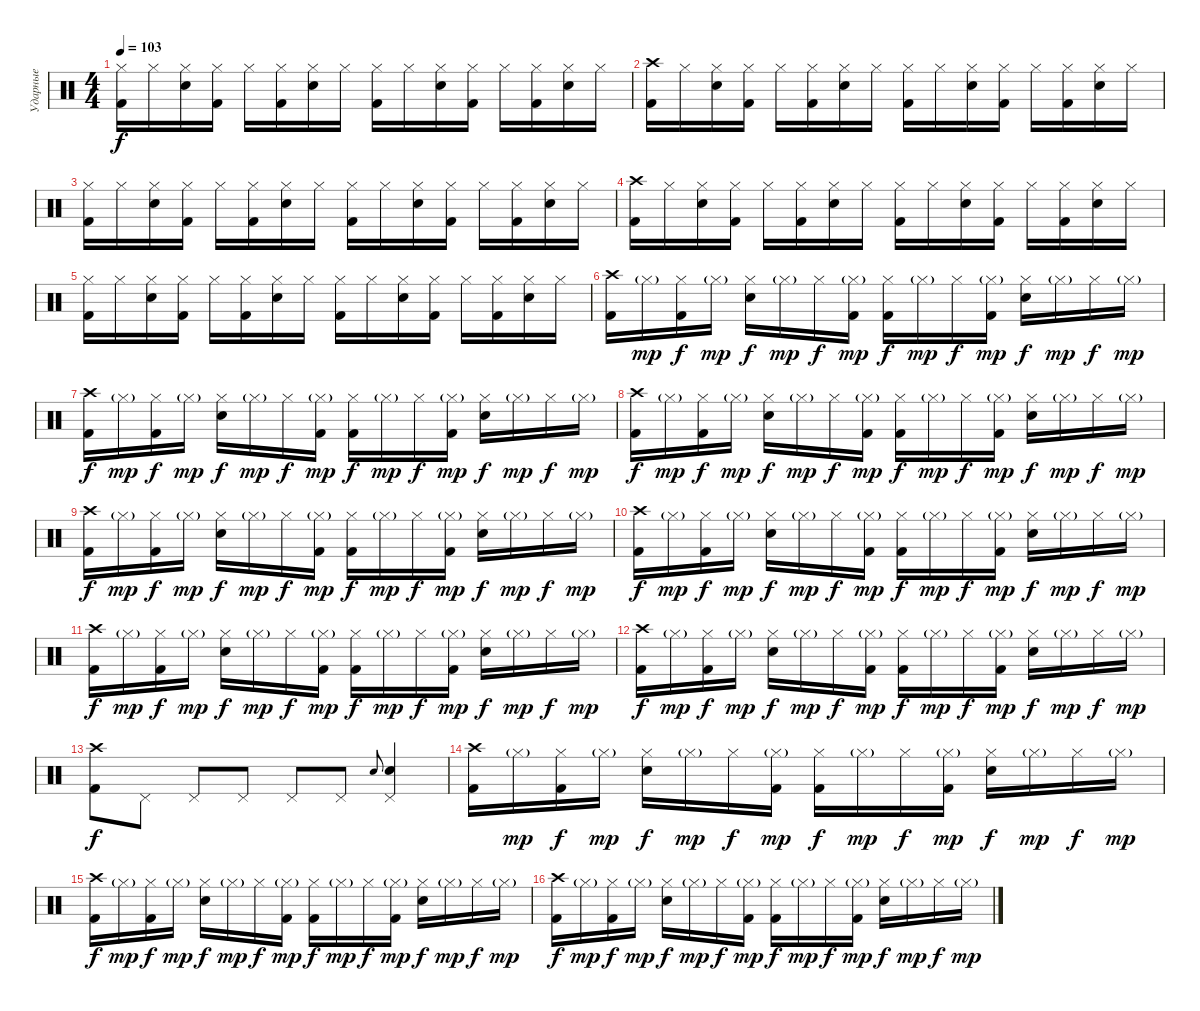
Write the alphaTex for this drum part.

\track ("Ударные" "Ударные") {instrument percussion}
\staff {score}
\articulation defaults
\ts (4 4)
\tempo 103
\clef neutral
\ks c
("Kick (hit) 2" "Hi-Hat (closed)").16{dy f} "Hi-Hat (closed)".16 ("Electric Snare (hit)" "Hi-Hat (closed)").16 ("Kick (hit) 2" "Hi-Hat (closed)").16 "Hi-Hat (closed)".16 ("Kick (hit) 2" "Hi-Hat (closed)").16 ("Electric Snare (hit)" "Hi-Hat (closed)").16 "Hi-Hat (closed)".16 ("Kick (hit) 2" "Hi-Hat (closed)").16 "Hi-Hat (closed)".16 ("Electric Snare (hit)" "Hi-Hat (closed)").16 ("Kick (hit) 2" "Hi-Hat (closed)").16 "Hi-Hat (closed)".16 ("Kick (hit) 2" "Hi-Hat (closed)").16 ("Electric Snare (hit)" "Hi-Hat (closed)").16 "Hi-Hat (closed)".16 |
("Kick (hit) 2" "Crash high (hit)").16 "Hi-Hat (closed)".16 ("Electric Snare (hit)" "Hi-Hat (closed)").16 ("Kick (hit) 2" "Hi-Hat (closed)").16 "Hi-Hat (closed)".16 ("Kick (hit) 2" "Hi-Hat (closed)").16 ("Electric Snare (hit)" "Hi-Hat (closed)").16 "Hi-Hat (closed)".16 ("Kick (hit) 2" "Hi-Hat (closed)").16 "Hi-Hat (closed)".16 ("Electric Snare (hit)" "Hi-Hat (closed)").16 ("Kick (hit) 2" "Hi-Hat (closed)").16 "Hi-Hat (closed)".16 ("Kick (hit) 2" "Hi-Hat (closed)").16 ("Electric Snare (hit)" "Hi-Hat (closed)").16 "Hi-Hat (closed)".16 |
("Kick (hit) 2" "Hi-Hat (closed)").16 "Hi-Hat (closed)".16 ("Electric Snare (hit)" "Hi-Hat (closed)").16 ("Kick (hit) 2" "Hi-Hat (closed)").16 "Hi-Hat (closed)".16 ("Kick (hit) 2" "Hi-Hat (closed)").16 ("Electric Snare (hit)" "Hi-Hat (closed)").16 "Hi-Hat (closed)".16 ("Kick (hit) 2" "Hi-Hat (closed)").16 "Hi-Hat (closed)".16 ("Electric Snare (hit)" "Hi-Hat (closed)").16 ("Kick (hit) 2" "Hi-Hat (closed)").16 "Hi-Hat (closed)".16 ("Kick (hit) 2" "Hi-Hat (closed)").16 ("Electric Snare (hit)" "Hi-Hat (closed)").16 "Hi-Hat (closed)".16 |
("Kick (hit) 2" "Crash high (hit)").16 "Hi-Hat (closed)".16 ("Electric Snare (hit)" "Hi-Hat (closed)").16 ("Kick (hit) 2" "Hi-Hat (closed)").16 "Hi-Hat (closed)".16 ("Kick (hit) 2" "Hi-Hat (closed)").16 ("Electric Snare (hit)" "Hi-Hat (closed)").16 "Hi-Hat (closed)".16 ("Kick (hit) 2" "Hi-Hat (closed)").16 "Hi-Hat (closed)".16 ("Electric Snare (hit)" "Hi-Hat (closed)").16 ("Kick (hit) 2" "Hi-Hat (closed)").16 "Hi-Hat (closed)".16 ("Kick (hit) 2" "Hi-Hat (closed)").16 ("Electric Snare (hit)" "Hi-Hat (closed)").16 "Hi-Hat (closed)".16 |
("Kick (hit) 2" "Hi-Hat (closed)").16 "Hi-Hat (closed)".16 ("Electric Snare (hit)" "Hi-Hat (closed)").16 ("Kick (hit) 2" "Hi-Hat (closed)").16 "Hi-Hat (closed)".16 ("Kick (hit) 2" "Hi-Hat (closed)").16 ("Electric Snare (hit)" "Hi-Hat (closed)").16 "Hi-Hat (closed)".16 ("Kick (hit) 2" "Hi-Hat (closed)").16 "Hi-Hat (closed)".16 ("Electric Snare (hit)" "Hi-Hat (closed)").16 ("Kick (hit) 2" "Hi-Hat (closed)").16 "Hi-Hat (closed)".16 ("Kick (hit) 2" "Hi-Hat (closed)").16 ("Electric Snare (hit)" "Hi-Hat (closed)").16 "Hi-Hat (closed)".16 |
("Kick (hit) 2" "Crash high (hit)").16 "Hi-Hat (closed)"{g}.16{dy mp} ("Kick (hit) 2" "Hi-Hat (closed)").16{dy f} "Hi-Hat (closed)"{g}.16{dy mp} ("Electric Snare (hit)" "Hi-Hat (closed)").16{dy f} "Hi-Hat (closed)"{g}.16{dy mp} "Hi-Hat (closed)".16{dy f} ("Kick (hit) 2" "Hi-Hat (closed)"{g}).16{dy mp} ("Kick (hit) 2" "Hi-Hat (closed)").16{dy f} "Hi-Hat (closed)"{g}.16{dy mp} "Hi-Hat (closed)".16{dy f} ("Kick (hit) 2" "Hi-Hat (closed)"{g}).16{dy mp} ("Electric Snare (hit)" "Hi-Hat (closed)").16{dy f} "Hi-Hat (closed)"{g}.16{dy mp} "Hi-Hat (closed)".16{dy f} "Hi-Hat (closed)"{g}.16{dy mp} |
("Kick (hit) 2" "Crash high (hit)").16{dy f} "Hi-Hat (closed)"{g}.16{dy mp} ("Kick (hit) 2" "Hi-Hat (closed)").16{dy f} "Hi-Hat (closed)"{g}.16{dy mp} ("Electric Snare (hit)" "Hi-Hat (closed)").16{dy f} "Hi-Hat (closed)"{g}.16{dy mp} "Hi-Hat (closed)".16{dy f} ("Kick (hit) 2" "Hi-Hat (closed)"{g}).16{dy mp} ("Kick (hit) 2" "Hi-Hat (closed)").16{dy f} "Hi-Hat (closed)"{g}.16{dy mp} "Hi-Hat (closed)".16{dy f} ("Kick (hit) 2" "Hi-Hat (closed)"{g}).16{dy mp} ("Electric Snare (hit)" "Hi-Hat (closed)").16{dy f} "Hi-Hat (closed)"{g}.16{dy mp} "Hi-Hat (closed)".16{dy f} "Hi-Hat (closed)"{g}.16{dy mp} |
("Kick (hit) 2" "Crash high (hit)").16{dy f} "Hi-Hat (closed)"{g}.16{dy mp} ("Kick (hit) 2" "Hi-Hat (closed)").16{dy f} "Hi-Hat (closed)"{g}.16{dy mp} ("Electric Snare (hit)" "Hi-Hat (closed)").16{dy f} "Hi-Hat (closed)"{g}.16{dy mp} "Hi-Hat (closed)".16{dy f} ("Kick (hit) 2" "Hi-Hat (closed)"{g}).16{dy mp} ("Kick (hit) 2" "Hi-Hat (closed)").16{dy f} "Hi-Hat (closed)"{g}.16{dy mp} "Hi-Hat (closed)".16{dy f} ("Kick (hit) 2" "Hi-Hat (closed)"{g}).16{dy mp} ("Electric Snare (hit)" "Hi-Hat (closed)").16{dy f} "Hi-Hat (closed)"{g}.16{dy mp} "Hi-Hat (closed)".16{dy f} "Hi-Hat (closed)"{g}.16{dy mp} |
("Kick (hit) 2" "Crash high (hit)").16{dy f} "Hi-Hat (closed)"{g}.16{dy mp} ("Kick (hit) 2" "Hi-Hat (closed)").16{dy f} "Hi-Hat (closed)"{g}.16{dy mp} ("Electric Snare (hit)" "Hi-Hat (closed)").16{dy f} "Hi-Hat (closed)"{g}.16{dy mp} "Hi-Hat (closed)".16{dy f} ("Kick (hit) 2" "Hi-Hat (closed)"{g}).16{dy mp} ("Kick (hit) 2" "Hi-Hat (closed)").16{dy f} "Hi-Hat (closed)"{g}.16{dy mp} "Hi-Hat (closed)".16{dy f} ("Kick (hit) 2" "Hi-Hat (closed)"{g}).16{dy mp} ("Electric Snare (hit)" "Hi-Hat (closed)").16{dy f} "Hi-Hat (closed)"{g}.16{dy mp} "Hi-Hat (closed)".16{dy f} "Hi-Hat (closed)"{g}.16{dy mp} |
("Kick (hit) 2" "Crash high (hit)").16{dy f} "Hi-Hat (closed)"{g}.16{dy mp} ("Kick (hit) 2" "Hi-Hat (closed)").16{dy f} "Hi-Hat (closed)"{g}.16{dy mp} ("Electric Snare (hit)" "Hi-Hat (closed)").16{dy f} "Hi-Hat (closed)"{g}.16{dy mp} "Hi-Hat (closed)".16{dy f} ("Kick (hit) 2" "Hi-Hat (closed)"{g}).16{dy mp} ("Kick (hit) 2" "Hi-Hat (closed)").16{dy f} "Hi-Hat (closed)"{g}.16{dy mp} "Hi-Hat (closed)".16{dy f} ("Kick (hit) 2" "Hi-Hat (closed)"{g}).16{dy mp} ("Electric Snare (hit)" "Hi-Hat (closed)").16{dy f} "Hi-Hat (closed)"{g}.16{dy mp} "Hi-Hat (closed)".16{dy f} "Hi-Hat (closed)"{g}.16{dy mp} |
("Kick (hit) 2" "Crash high (hit)").16{dy f} "Hi-Hat (closed)"{g}.16{dy mp} ("Kick (hit) 2" "Hi-Hat (closed)").16{dy f} "Hi-Hat (closed)"{g}.16{dy mp} ("Electric Snare (hit)" "Hi-Hat (closed)").16{dy f} "Hi-Hat (closed)"{g}.16{dy mp} "Hi-Hat (closed)".16{dy f} ("Kick (hit) 2" "Hi-Hat (closed)"{g}).16{dy mp} ("Kick (hit) 2" "Hi-Hat (closed)").16{dy f} "Hi-Hat (closed)"{g}.16{dy mp} "Hi-Hat (closed)".16{dy f} ("Kick (hit) 2" "Hi-Hat (closed)"{g}).16{dy mp} ("Electric Snare (hit)" "Hi-Hat (closed)").16{dy f} "Hi-Hat (closed)"{g}.16{dy mp} "Hi-Hat (closed)".16{dy f} "Hi-Hat (closed)"{g}.16{dy mp} |
("Kick (hit) 2" "Crash high (hit)").16{dy f} "Hi-Hat (closed)"{g}.16{dy mp} ("Kick (hit) 2" "Hi-Hat (closed)").16{dy f} "Hi-Hat (closed)"{g}.16{dy mp} ("Electric Snare (hit)" "Hi-Hat (closed)").16{dy f} "Hi-Hat (closed)"{g}.16{dy mp} "Hi-Hat (closed)".16{dy f} ("Kick (hit) 2" "Hi-Hat (closed)"{g}).16{dy mp} ("Kick (hit) 2" "Hi-Hat (closed)").16{dy f} "Hi-Hat (closed)"{g}.16{dy mp} "Hi-Hat (closed)".16{dy f} ("Kick (hit) 2" "Hi-Hat (closed)"{g}).16{dy mp} ("Electric Snare (hit)" "Hi-Hat (closed)").16{dy f} "Hi-Hat (closed)"{g}.16{dy mp} "Hi-Hat (closed)".16{dy f} "Hi-Hat (closed)"{g}.16{dy mp} |
("Kick (hit) 2" "Crash high (hit)").8{dy f} "Pedal Hi-Hat (hit)".8 "Pedal Hi-Hat (hit)".8 "Pedal Hi-Hat (hit)".8 "Pedal Hi-Hat (hit)".8 "Pedal Hi-Hat (hit)".8 "Electric Snare (hit)".8{gr onbeat} ("Pedal Hi-Hat (hit)" "Electric Snare (hit)").4 |
("Kick (hit) 2" "Crash high (hit)").16 "Hi-Hat (closed)"{g}.16{dy mp} ("Kick (hit) 2" "Hi-Hat (closed)").16{dy f} "Hi-Hat (closed)"{g}.16{dy mp} ("Electric Snare (hit)" "Hi-Hat (closed)").16{dy f} "Hi-Hat (closed)"{g}.16{dy mp} "Hi-Hat (closed)".16{dy f} ("Kick (hit) 2" "Hi-Hat (closed)"{g}).16{dy mp} ("Kick (hit) 2" "Hi-Hat (closed)").16{dy f} "Hi-Hat (closed)"{g}.16{dy mp} "Hi-Hat (closed)".16{dy f} ("Kick (hit) 2" "Hi-Hat (closed)"{g}).16{dy mp} ("Electric Snare (hit)" "Hi-Hat (closed)").16{dy f} "Hi-Hat (closed)"{g}.16{dy mp} "Hi-Hat (closed)".16{dy f} "Hi-Hat (closed)"{g}.16{dy mp} |
("Kick (hit) 2" "Crash high (hit)").16{dy f} "Hi-Hat (closed)"{g}.16{dy mp} ("Kick (hit) 2" "Hi-Hat (closed)").16{dy f} "Hi-Hat (closed)"{g}.16{dy mp} ("Electric Snare (hit)" "Hi-Hat (closed)").16{dy f} "Hi-Hat (closed)"{g}.16{dy mp} "Hi-Hat (closed)".16{dy f} ("Kick (hit) 2" "Hi-Hat (closed)"{g}).16{dy mp} ("Kick (hit) 2" "Hi-Hat (closed)").16{dy f} "Hi-Hat (closed)"{g}.16{dy mp} "Hi-Hat (closed)".16{dy f} ("Kick (hit) 2" "Hi-Hat (closed)"{g}).16{dy mp} ("Electric Snare (hit)" "Hi-Hat (closed)").16{dy f} "Hi-Hat (closed)"{g}.16{dy mp} "Hi-Hat (closed)".16{dy f} "Hi-Hat (closed)"{g}.16{dy mp} |
("Kick (hit) 2" "Crash high (hit)").16{dy f} "Hi-Hat (closed)"{g}.16{dy mp} ("Kick (hit) 2" "Hi-Hat (closed)").16{dy f} "Hi-Hat (closed)"{g}.16{dy mp} ("Electric Snare (hit)" "Hi-Hat (closed)").16{dy f} "Hi-Hat (closed)"{g}.16{dy mp} "Hi-Hat (closed)".16{dy f} ("Kick (hit) 2" "Hi-Hat (closed)"{g}).16{dy mp} ("Kick (hit) 2" "Hi-Hat (closed)").16{dy f} "Hi-Hat (closed)"{g}.16{dy mp} "Hi-Hat (closed)".16{dy f} ("Kick (hit) 2" "Hi-Hat (closed)"{g}).16{dy mp} ("Electric Snare (hit)" "Hi-Hat (closed)").16{dy f} "Hi-Hat (closed)"{g}.16{dy mp} "Hi-Hat (closed)".16{dy f} "Hi-Hat (closed)"{g}.16{dy mp}
